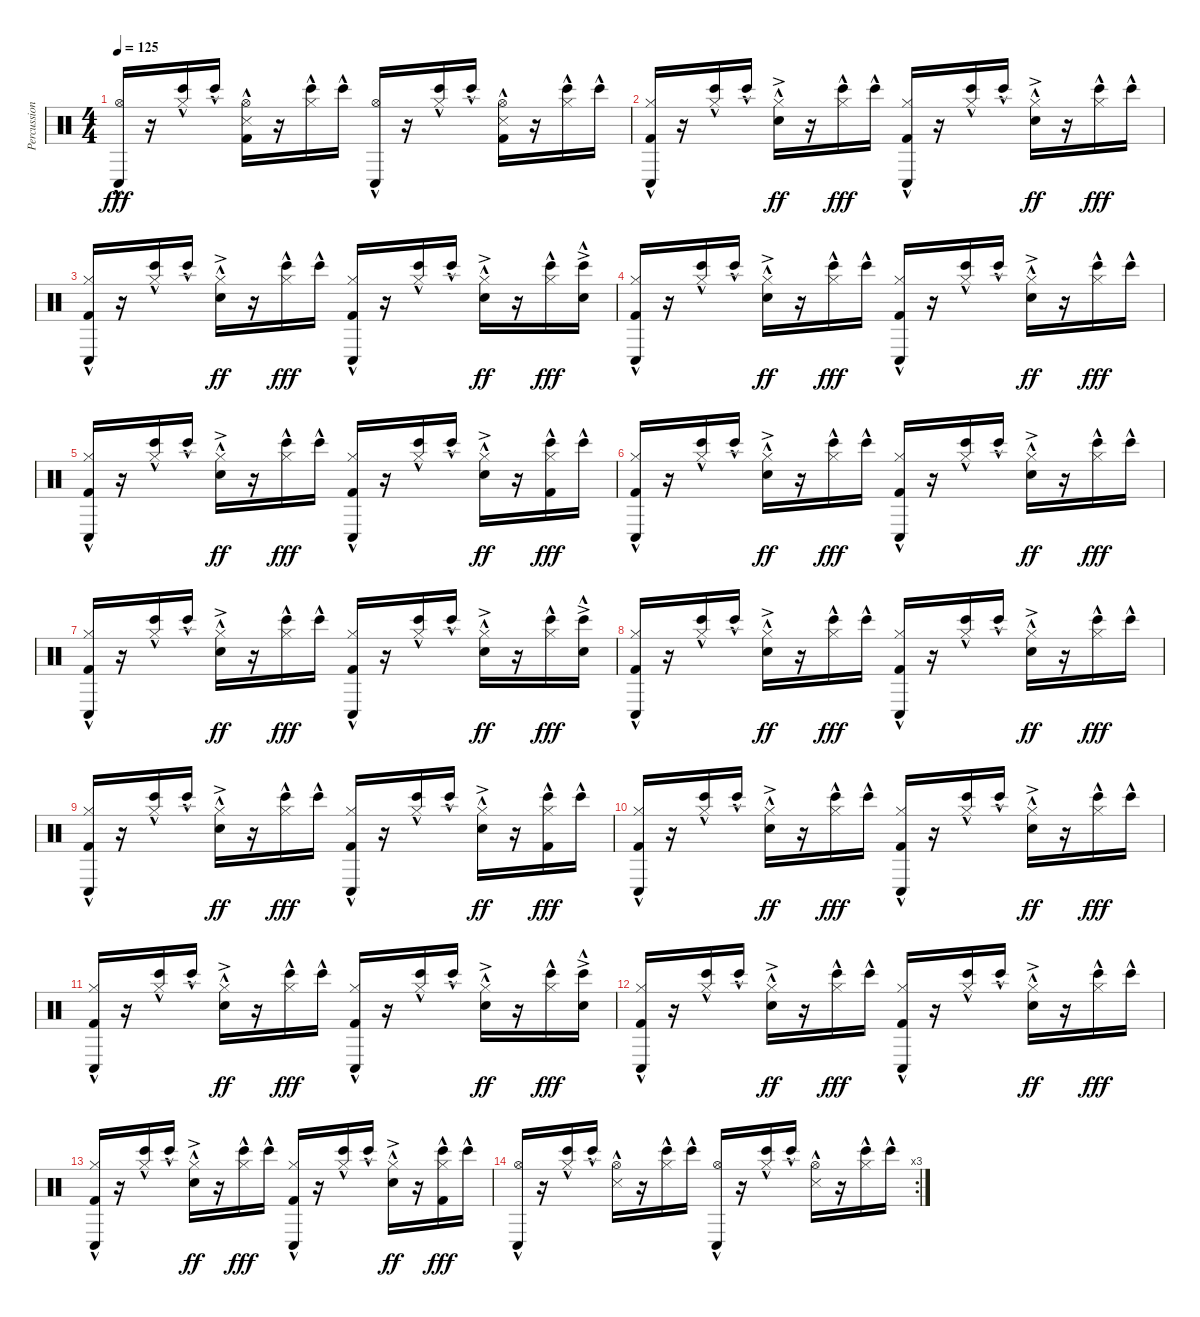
\track ("Percussion" "Percussion") {instrument percussion}
\staff {score}
\articulation defaults
\ts (4 4)
\tempo 125
\clef neutral
\ks c
("Hi-Hat (open)"{hac} "Conga low (hit)"{hac}).16{dy fff} r.16 ("Hi-Hat (closed)"{hac} "Bongo High (hit)"{hac}).16 "Bongo High (hit)"{hac}.16 ("Hi-Hat (open)"{hac} "Snare (side stick) 3"{hac} "Kick (hit) 2"{hac}).16 r.16 ("Hi-Hat (closed)"{hac} "Bongo High (hit)"{hac}).16 "Bongo High (hit)"{hac}.16 ("Hi-Hat (open)"{hac} "Conga low (hit)"{hac}).16 r.16 ("Hi-Hat (closed)"{hac} "Bongo High (hit)"{hac}).16 "Bongo High (hit)"{hac}.16 ("Hi-Hat (open)"{hac} "Snare (side stick) 3"{hac} "Kick (hit) 2"{hac}).16 r.16 ("Hi-Hat (closed)"{hac} "Bongo High (hit)"{hac}).16 "Bongo High (hit)"{hac}.16 |
("Hi-Hat (closed)"{hac} "Conga low (hit)"{hac} "Kick (hit) 2"{hac}).16 r.16 ("Hi-Hat (closed)"{hac} "Bongo High (hit)"{hac}).16 "Bongo High (hit)"{hac}.16 ("Hi-Hat (closed)"{hac} "Snare (hit) 2"{ac}).16{dy ff} r.16 ("Hi-Hat (closed)"{hac} "Bongo High (hit)"{hac}).16{dy fff} "Bongo High (hit)"{hac}.16 ("Hi-Hat (closed)"{hac} "Conga low (hit)"{hac} "Kick (hit) 2"{hac}).16 r.16 ("Hi-Hat (closed)"{hac} "Bongo High (hit)"{hac}).16 "Bongo High (hit)"{hac}.16 ("Hi-Hat (closed)"{hac} "Snare (hit) 2"{ac}).16{dy ff} r.16 ("Hi-Hat (closed)"{hac} "Bongo High (hit)"{hac}).16{dy fff} "Bongo High (hit)"{hac}.16 |
("Hi-Hat (closed)"{hac} "Conga low (hit)"{hac} "Kick (hit) 2"{hac}).16 r.16 ("Hi-Hat (closed)"{hac} "Bongo High (hit)"{hac}).16 "Bongo High (hit)"{hac}.16 ("Hi-Hat (closed)"{hac} "Snare (hit) 2"{ac}).16{dy ff} r.16 ("Hi-Hat (closed)"{hac} "Bongo High (hit)"{hac}).16{dy fff} "Bongo High (hit)"{hac}.16 ("Hi-Hat (closed)"{hac} "Conga low (hit)"{hac} "Kick (hit) 2"{hac}).16 r.16 ("Hi-Hat (closed)"{hac} "Bongo High (hit)"{hac}).16 "Bongo High (hit)"{hac}.16 ("Hi-Hat (closed)"{hac} "Snare (hit) 2"{ac}).16{dy ff} r.16 ("Hi-Hat (closed)"{hac} "Bongo High (hit)"{hac}).16{dy fff} ("Snare (hit) 2"{ac} "Bongo High (hit)"{hac}).16 |
("Hi-Hat (closed)"{hac} "Conga low (hit)"{hac} "Kick (hit) 2"{hac}).16 r.16 ("Hi-Hat (closed)"{hac} "Bongo High (hit)"{hac}).16 "Bongo High (hit)"{hac}.16 ("Hi-Hat (closed)"{hac} "Snare (hit) 2"{ac}).16{dy ff} r.16 ("Hi-Hat (closed)"{hac} "Bongo High (hit)"{hac}).16{dy fff} "Bongo High (hit)"{hac}.16 ("Hi-Hat (closed)"{hac} "Conga low (hit)"{hac} "Kick (hit) 2"{hac}).16 r.16 ("Hi-Hat (closed)"{hac} "Bongo High (hit)"{hac}).16 "Bongo High (hit)"{hac}.16 ("Hi-Hat (closed)"{hac} "Snare (hit) 2"{ac}).16{dy ff} r.16 ("Hi-Hat (closed)"{hac} "Bongo High (hit)"{hac}).16{dy fff} "Bongo High (hit)"{hac}.16 |
("Hi-Hat (closed)"{hac} "Conga low (hit)"{hac} "Kick (hit) 2"{hac}).16 r.16 ("Hi-Hat (closed)"{hac} "Bongo High (hit)"{hac}).16 "Bongo High (hit)"{hac}.16 ("Hi-Hat (closed)"{hac} "Snare (hit) 2"{ac}).16{dy ff} r.16 ("Hi-Hat (closed)"{hac} "Bongo High (hit)"{hac}).16{dy fff} "Bongo High (hit)"{hac}.16 ("Hi-Hat (closed)"{hac} "Conga low (hit)"{hac} "Kick (hit) 2"{hac}).16 r.16 ("Hi-Hat (closed)"{hac} "Bongo High (hit)"{hac}).16 "Bongo High (hit)"{hac}.16 ("Hi-Hat (closed)"{hac} "Snare (hit) 2"{ac}).16{dy ff} r.16 ("Hi-Hat (closed)"{hac} "Bongo High (hit)"{hac} "Kick (hit) 2"{hac}).16{dy fff} "Bongo High (hit)"{hac}.16 |
("Hi-Hat (closed)"{hac} "Conga low (hit)"{hac} "Kick (hit) 2"{hac}).16 r.16 ("Hi-Hat (closed)"{hac} "Bongo High (hit)"{hac}).16 "Bongo High (hit)"{hac}.16 ("Hi-Hat (closed)"{hac} "Snare (hit) 2"{ac}).16{dy ff} r.16 ("Hi-Hat (closed)"{hac} "Bongo High (hit)"{hac}).16{dy fff} "Bongo High (hit)"{hac}.16 ("Hi-Hat (closed)"{hac} "Conga low (hit)"{hac} "Kick (hit) 2"{hac}).16 r.16 ("Hi-Hat (closed)"{hac} "Bongo High (hit)"{hac}).16 "Bongo High (hit)"{hac}.16 ("Hi-Hat (closed)"{hac} "Snare (hit) 2"{ac}).16{dy ff} r.16 ("Hi-Hat (closed)"{hac} "Bongo High (hit)"{hac}).16{dy fff} "Bongo High (hit)"{hac}.16 |
("Hi-Hat (closed)"{hac} "Conga low (hit)"{hac} "Kick (hit) 2"{hac}).16 r.16 ("Hi-Hat (closed)"{hac} "Bongo High (hit)"{hac}).16 "Bongo High (hit)"{hac}.16 ("Hi-Hat (closed)"{hac} "Snare (hit) 2"{ac}).16{dy ff} r.16 ("Hi-Hat (closed)"{hac} "Bongo High (hit)"{hac}).16{dy fff} "Bongo High (hit)"{hac}.16 ("Hi-Hat (closed)"{hac} "Conga low (hit)"{hac} "Kick (hit) 2"{hac}).16 r.16 ("Hi-Hat (closed)"{hac} "Bongo High (hit)"{hac}).16 "Bongo High (hit)"{hac}.16 ("Hi-Hat (closed)"{hac} "Snare (hit) 2"{ac}).16{dy ff} r.16 ("Hi-Hat (closed)"{hac} "Bongo High (hit)"{hac}).16{dy fff} ("Snare (hit) 2"{ac} "Bongo High (hit)"{hac}).16 |
("Hi-Hat (closed)"{hac} "Conga low (hit)"{hac} "Kick (hit) 2"{hac}).16 r.16 ("Hi-Hat (closed)"{hac} "Bongo High (hit)"{hac}).16 "Bongo High (hit)"{hac}.16 ("Hi-Hat (closed)"{hac} "Snare (hit) 2"{ac}).16{dy ff} r.16 ("Hi-Hat (closed)"{hac} "Bongo High (hit)"{hac}).16{dy fff} "Bongo High (hit)"{hac}.16 ("Hi-Hat (closed)"{hac} "Conga low (hit)"{hac} "Kick (hit) 2"{hac}).16 r.16 ("Hi-Hat (closed)"{hac} "Bongo High (hit)"{hac}).16 "Bongo High (hit)"{hac}.16 ("Hi-Hat (closed)"{hac} "Snare (hit) 2"{ac}).16{dy ff} r.16 ("Hi-Hat (closed)"{hac} "Bongo High (hit)"{hac}).16{dy fff} "Bongo High (hit)"{hac}.16 |
("Hi-Hat (closed)"{hac} "Conga low (hit)"{hac} "Kick (hit) 2"{hac}).16 r.16 ("Hi-Hat (closed)"{hac} "Bongo High (hit)"{hac}).16 "Bongo High (hit)"{hac}.16 ("Hi-Hat (closed)"{hac} "Snare (hit) 2"{ac}).16{dy ff} r.16 ("Hi-Hat (closed)"{hac} "Bongo High (hit)"{hac}).16{dy fff} "Bongo High (hit)"{hac}.16 ("Hi-Hat (closed)"{hac} "Conga low (hit)"{hac} "Kick (hit) 2"{hac}).16 r.16 ("Hi-Hat (closed)"{hac} "Bongo High (hit)"{hac}).16 "Bongo High (hit)"{hac}.16 ("Hi-Hat (closed)"{hac} "Snare (hit) 2"{ac}).16{dy ff} r.16 ("Hi-Hat (closed)"{hac} "Bongo High (hit)"{hac} "Kick (hit) 2"{hac}).16{dy fff} "Bongo High (hit)"{hac}.16 |
("Hi-Hat (closed)"{hac} "Conga low (hit)"{hac} "Kick (hit) 2"{hac}).16 r.16 ("Hi-Hat (closed)"{hac} "Bongo High (hit)"{hac}).16 "Bongo High (hit)"{hac}.16 ("Hi-Hat (closed)"{hac} "Snare (hit) 2"{ac}).16{dy ff} r.16 ("Hi-Hat (closed)"{hac} "Bongo High (hit)"{hac}).16{dy fff} "Bongo High (hit)"{hac}.16 ("Hi-Hat (closed)"{hac} "Conga low (hit)"{hac} "Kick (hit) 2"{hac}).16 r.16 ("Hi-Hat (closed)"{hac} "Bongo High (hit)"{hac}).16 "Bongo High (hit)"{hac}.16 ("Hi-Hat (closed)"{hac} "Snare (hit) 2"{ac}).16{dy ff} r.16 ("Hi-Hat (closed)"{hac} "Bongo High (hit)"{hac}).16{dy fff} "Bongo High (hit)"{hac}.16 |
("Hi-Hat (closed)"{hac} "Conga low (hit)"{hac} "Kick (hit) 2"{hac}).16 r.16 ("Hi-Hat (closed)"{hac} "Bongo High (hit)"{hac}).16 "Bongo High (hit)"{hac}.16 ("Hi-Hat (closed)"{hac} "Snare (hit) 2"{ac}).16{dy ff} r.16 ("Hi-Hat (closed)"{hac} "Bongo High (hit)"{hac}).16{dy fff} "Bongo High (hit)"{hac}.16 ("Hi-Hat (closed)"{hac} "Conga low (hit)"{hac} "Kick (hit) 2"{hac}).16 r.16 ("Hi-Hat (closed)"{hac} "Bongo High (hit)"{hac}).16 "Bongo High (hit)"{hac}.16 ("Hi-Hat (closed)"{hac} "Snare (hit) 2"{ac}).16{dy ff} r.16 ("Hi-Hat (closed)"{hac} "Bongo High (hit)"{hac}).16{dy fff} ("Snare (hit) 2"{ac} "Bongo High (hit)"{hac}).16 |
("Hi-Hat (closed)"{hac} "Conga low (hit)"{hac} "Kick (hit) 2"{hac}).16 r.16 ("Hi-Hat (closed)"{hac} "Bongo High (hit)"{hac}).16 "Bongo High (hit)"{hac}.16 ("Hi-Hat (closed)"{hac} "Snare (hit) 2"{ac}).16{dy ff} r.16 ("Hi-Hat (closed)"{hac} "Bongo High (hit)"{hac}).16{dy fff} "Bongo High (hit)"{hac}.16 ("Hi-Hat (closed)"{hac} "Conga low (hit)"{hac} "Kick (hit) 2"{hac}).16 r.16 ("Hi-Hat (closed)"{hac} "Bongo High (hit)"{hac}).16 "Bongo High (hit)"{hac}.16 ("Hi-Hat (closed)"{hac} "Snare (hit) 2"{ac}).16{dy ff} r.16 ("Hi-Hat (closed)"{hac} "Bongo High (hit)"{hac}).16{dy fff} "Bongo High (hit)"{hac}.16 |
("Hi-Hat (closed)"{hac} "Conga low (hit)"{hac} "Kick (hit) 2"{hac}).16 r.16 ("Hi-Hat (closed)"{hac} "Bongo High (hit)"{hac}).16 "Bongo High (hit)"{hac}.16 ("Hi-Hat (closed)"{hac} "Snare (hit) 2"{ac}).16{dy ff} r.16 ("Hi-Hat (closed)"{hac} "Bongo High (hit)"{hac}).16{dy fff} "Bongo High (hit)"{hac}.16 ("Hi-Hat (closed)"{hac} "Conga low (hit)"{hac} "Kick (hit) 2"{hac}).16 r.16 ("Hi-Hat (closed)"{hac} "Bongo High (hit)"{hac}).16 "Bongo High (hit)"{hac}.16 ("Hi-Hat (closed)"{hac} "Snare (hit) 2"{ac}).16{dy ff} r.16 ("Hi-Hat (closed)"{hac} "Bongo High (hit)"{hac} "Kick (hit) 2"{hac}).16{dy fff} "Bongo High (hit)"{hac}.16 |
\rc 3
("Hi-Hat (open)"{hac} "Conga low (hit)"{hac}).16 r.16 ("Hi-Hat (closed)"{hac} "Bongo High (hit)"{hac}).16 "Bongo High (hit)"{hac}.16 ("Hi-Hat (open)"{hac} "Snare (side stick) 3"{hac}).16 r.16 ("Hi-Hat (closed)"{hac} "Bongo High (hit)"{hac}).16 "Bongo High (hit)"{hac}.16 ("Hi-Hat (open)"{hac} "Conga low (hit)"{hac}).16 r.16 ("Hi-Hat (closed)"{hac} "Bongo High (hit)"{hac}).16 "Bongo High (hit)"{hac}.16 ("Hi-Hat (open)"{hac} "Snare (side stick) 3"{hac}).16 r.16 ("Hi-Hat (closed)"{hac} "Bongo High (hit)"{hac}).16 "Bongo High (hit)"{hac}.16
